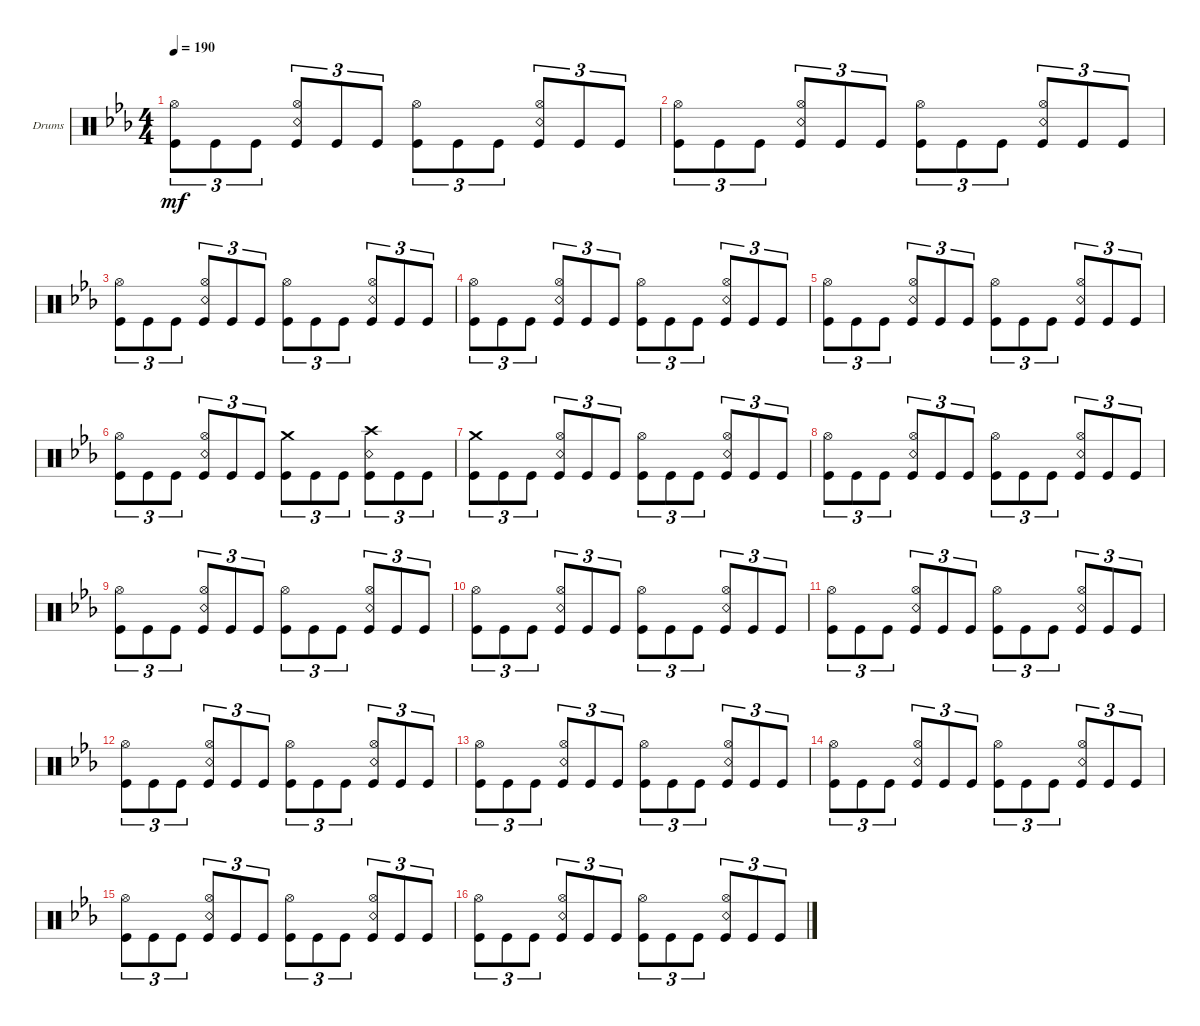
\defaultSystemsLayout 4
\bracketExtendMode groupsimilarinstruments
\firstSystemTrackNameOrientation horizontal
\otherSystemsTrackNameOrientation horizontal
\track ("Drumkit" "Drums") {instrument percussion}
\staff {score}
\articulation defaults
\ts (4 4)
\tempo 190
\clef neutral
\ks cminor
("Kick (hit)" "Hi-Hat (open)").8{tu (3 2) dy mf} "Kick (hit)".8{tu (3 2)} "Kick (hit)".8{tu (3 2)} ("Snare (rim shot)" "Hi-Hat (open)" "Kick (hit)").8{tu (3 2)} "Kick (hit)".8{tu (3 2)} "Kick (hit)".8{tu (3 2)} ("Kick (hit)" "Hi-Hat (open)").8{tu (3 2)} "Kick (hit)".8{tu (3 2)} "Kick (hit)".8{tu (3 2)} ("Snare (rim shot)" "Hi-Hat (open)" "Kick (hit)").8{tu (3 2)} "Kick (hit)".8{tu (3 2)} "Kick (hit)".8{tu (3 2)} |
("Kick (hit)" "Hi-Hat (open)").8{tu (3 2)} "Kick (hit)".8{tu (3 2)} "Kick (hit)".8{tu (3 2)} ("Snare (rim shot)" "Hi-Hat (open)" "Kick (hit)").8{tu (3 2)} "Kick (hit)".8{tu (3 2)} "Kick (hit)".8{tu (3 2)} ("Kick (hit)" "Hi-Hat (open)").8{tu (3 2)} "Kick (hit)".8{tu (3 2)} "Kick (hit)".8{tu (3 2)} ("Snare (rim shot)" "Hi-Hat (open)" "Kick (hit)").8{tu (3 2)} "Kick (hit)".8{tu (3 2)} "Kick (hit)".8{tu (3 2)} |
("Kick (hit)" "Hi-Hat (open)").8{tu (3 2)} "Kick (hit)".8{tu (3 2)} "Kick (hit)".8{tu (3 2)} ("Snare (rim shot)" "Hi-Hat (open)" "Kick (hit)").8{tu (3 2)} "Kick (hit)".8{tu (3 2)} "Kick (hit)".8{tu (3 2)} ("Kick (hit)" "Hi-Hat (open)").8{tu (3 2)} "Kick (hit)".8{tu (3 2)} "Kick (hit)".8{tu (3 2)} ("Snare (rim shot)" "Hi-Hat (open)" "Kick (hit)").8{tu (3 2)} "Kick (hit)".8{tu (3 2)} "Kick (hit)".8{tu (3 2)} |
("Kick (hit)" "Hi-Hat (open)").8{tu (3 2)} "Kick (hit)".8{tu (3 2)} "Kick (hit)".8{tu (3 2)} ("Snare (rim shot)" "Hi-Hat (open)" "Kick (hit)").8{tu (3 2)} "Kick (hit)".8{tu (3 2)} "Kick (hit)".8{tu (3 2)} ("Kick (hit)" "Hi-Hat (open)").8{tu (3 2)} "Kick (hit)".8{tu (3 2)} "Kick (hit)".8{tu (3 2)} ("Snare (rim shot)" "Hi-Hat (open)" "Kick (hit)").8{tu (3 2)} "Kick (hit)".8{tu (3 2)} "Kick (hit)".8{tu (3 2)} |
("Kick (hit)" "Hi-Hat (open)").8{tu (3 2)} "Kick (hit)".8{tu (3 2)} "Kick (hit)".8{tu (3 2)} ("Snare (rim shot)" "Hi-Hat (open)" "Kick (hit)").8{tu (3 2)} "Kick (hit)".8{tu (3 2)} "Kick (hit)".8{tu (3 2)} ("Kick (hit)" "Hi-Hat (open)").8{tu (3 2)} "Kick (hit)".8{tu (3 2)} "Kick (hit)".8{tu (3 2)} ("Snare (rim shot)" "Hi-Hat (open)" "Kick (hit)").8{tu (3 2)} "Kick (hit)".8{tu (3 2)} "Kick (hit)".8{tu (3 2)} |
("Kick (hit)" "Hi-Hat (open)").8{tu (3 2)} "Kick (hit)".8{tu (3 2)} "Kick (hit)".8{tu (3 2)} ("Snare (rim shot)" "Hi-Hat (open)" "Kick (hit)").8{tu (3 2)} "Kick (hit)".8{tu (3 2)} "Kick (hit)".8{tu (3 2)} ("Kick (hit)" "Crash medium (hit)").8{tu (3 2)} "Kick (hit)".8{tu (3 2)} "Kick (hit)".8{tu (3 2)} ("Snare (rim shot)" "Kick (hit)" "Crash high (hit)").8{tu (3 2)} "Kick (hit)".8{tu (3 2)} "Kick (hit)".8{tu (3 2)} |
("Kick (hit)" "Crash medium (hit)").8{tu (3 2)} "Kick (hit)".8{tu (3 2)} "Kick (hit)".8{tu (3 2)} ("Snare (rim shot)" "Hi-Hat (open)" "Kick (hit)").8{tu (3 2)} "Kick (hit)".8{tu (3 2)} "Kick (hit)".8{tu (3 2)} ("Kick (hit)" "Hi-Hat (open)").8{tu (3 2)} "Kick (hit)".8{tu (3 2)} "Kick (hit)".8{tu (3 2)} ("Snare (rim shot)" "Hi-Hat (open)" "Kick (hit)").8{tu (3 2)} "Kick (hit)".8{tu (3 2)} "Kick (hit)".8{tu (3 2)} |
("Kick (hit)" "Hi-Hat (open)").8{tu (3 2)} "Kick (hit)".8{tu (3 2)} "Kick (hit)".8{tu (3 2)} ("Snare (rim shot)" "Hi-Hat (open)" "Kick (hit)").8{tu (3 2)} "Kick (hit)".8{tu (3 2)} "Kick (hit)".8{tu (3 2)} ("Kick (hit)" "Hi-Hat (open)").8{tu (3 2)} "Kick (hit)".8{tu (3 2)} "Kick (hit)".8{tu (3 2)} ("Snare (rim shot)" "Hi-Hat (open)" "Kick (hit)").8{tu (3 2)} "Kick (hit)".8{tu (3 2)} "Kick (hit)".8{tu (3 2)} |
("Kick (hit)" "Hi-Hat (open)").8{tu (3 2)} "Kick (hit)".8{tu (3 2)} "Kick (hit)".8{tu (3 2)} ("Snare (rim shot)" "Hi-Hat (open)" "Kick (hit)").8{tu (3 2)} "Kick (hit)".8{tu (3 2)} "Kick (hit)".8{tu (3 2)} ("Kick (hit)" "Hi-Hat (open)").8{tu (3 2)} "Kick (hit)".8{tu (3 2)} "Kick (hit)".8{tu (3 2)} ("Snare (rim shot)" "Hi-Hat (open)" "Kick (hit)").8{tu (3 2)} "Kick (hit)".8{tu (3 2)} "Kick (hit)".8{tu (3 2)} |
("Kick (hit)" "Hi-Hat (open)").8{tu (3 2)} "Kick (hit)".8{tu (3 2)} "Kick (hit)".8{tu (3 2)} ("Snare (rim shot)" "Hi-Hat (open)" "Kick (hit)").8{tu (3 2)} "Kick (hit)".8{tu (3 2)} "Kick (hit)".8{tu (3 2)} ("Kick (hit)" "Hi-Hat (open)").8{tu (3 2)} "Kick (hit)".8{tu (3 2)} "Kick (hit)".8{tu (3 2)} ("Snare (rim shot)" "Hi-Hat (open)" "Kick (hit)").8{tu (3 2)} "Kick (hit)".8{tu (3 2)} "Kick (hit)".8{tu (3 2)} |
("Kick (hit)" "Hi-Hat (open)").8{tu (3 2)} "Kick (hit)".8{tu (3 2)} "Kick (hit)".8{tu (3 2)} ("Snare (rim shot)" "Hi-Hat (open)" "Kick (hit)").8{tu (3 2)} "Kick (hit)".8{tu (3 2)} "Kick (hit)".8{tu (3 2)} ("Kick (hit)" "Hi-Hat (open)").8{tu (3 2)} "Kick (hit)".8{tu (3 2)} "Kick (hit)".8{tu (3 2)} ("Snare (rim shot)" "Hi-Hat (open)" "Kick (hit)").8{tu (3 2)} "Kick (hit)".8{tu (3 2)} "Kick (hit)".8{tu (3 2)} |
("Kick (hit)" "Hi-Hat (open)").8{tu (3 2)} "Kick (hit)".8{tu (3 2)} "Kick (hit)".8{tu (3 2)} ("Snare (rim shot)" "Hi-Hat (open)" "Kick (hit)").8{tu (3 2)} "Kick (hit)".8{tu (3 2)} "Kick (hit)".8{tu (3 2)} ("Kick (hit)" "Hi-Hat (open)").8{tu (3 2)} "Kick (hit)".8{tu (3 2)} "Kick (hit)".8{tu (3 2)} ("Snare (rim shot)" "Hi-Hat (open)" "Kick (hit)").8{tu (3 2)} "Kick (hit)".8{tu (3 2)} "Kick (hit)".8{tu (3 2)} |
("Kick (hit)" "Hi-Hat (open)").8{tu (3 2)} "Kick (hit)".8{tu (3 2)} "Kick (hit)".8{tu (3 2)} ("Snare (rim shot)" "Hi-Hat (open)" "Kick (hit)").8{tu (3 2)} "Kick (hit)".8{tu (3 2)} "Kick (hit)".8{tu (3 2)} ("Kick (hit)" "Hi-Hat (open)").8{tu (3 2)} "Kick (hit)".8{tu (3 2)} "Kick (hit)".8{tu (3 2)} ("Snare (rim shot)" "Hi-Hat (open)" "Kick (hit)").8{tu (3 2)} "Kick (hit)".8{tu (3 2)} "Kick (hit)".8{tu (3 2)} |
("Kick (hit)" "Hi-Hat (open)").8{tu (3 2)} "Kick (hit)".8{tu (3 2)} "Kick (hit)".8{tu (3 2)} ("Snare (rim shot)" "Hi-Hat (open)" "Kick (hit)").8{tu (3 2)} "Kick (hit)".8{tu (3 2)} "Kick (hit)".8{tu (3 2)} ("Kick (hit)" "Hi-Hat (open)").8{tu (3 2)} "Kick (hit)".8{tu (3 2)} "Kick (hit)".8{tu (3 2)} ("Snare (rim shot)" "Hi-Hat (open)" "Kick (hit)").8{tu (3 2)} "Kick (hit)".8{tu (3 2)} "Kick (hit)".8{tu (3 2)} |
("Kick (hit)" "Hi-Hat (open)").8{tu (3 2)} "Kick (hit)".8{tu (3 2)} "Kick (hit)".8{tu (3 2)} ("Snare (rim shot)" "Hi-Hat (open)" "Kick (hit)").8{tu (3 2)} "Kick (hit)".8{tu (3 2)} "Kick (hit)".8{tu (3 2)} ("Kick (hit)" "Hi-Hat (open)").8{tu (3 2)} "Kick (hit)".8{tu (3 2)} "Kick (hit)".8{tu (3 2)} ("Snare (rim shot)" "Hi-Hat (open)" "Kick (hit)").8{tu (3 2)} "Kick (hit)".8{tu (3 2)} "Kick (hit)".8{tu (3 2)} |
("Kick (hit)" "Hi-Hat (open)").8{tu (3 2)} "Kick (hit)".8{tu (3 2)} "Kick (hit)".8{tu (3 2)} ("Snare (rim shot)" "Hi-Hat (open)" "Kick (hit)").8{tu (3 2)} "Kick (hit)".8{tu (3 2)} "Kick (hit)".8{tu (3 2)} ("Kick (hit)" "Hi-Hat (open)").8{tu (3 2)} "Kick (hit)".8{tu (3 2)} "Kick (hit)".8{tu (3 2)} ("Snare (rim shot)" "Hi-Hat (open)" "Kick (hit)").8{tu (3 2)} "Kick (hit)".8{tu (3 2)} "Kick (hit)".8{tu (3 2)}
